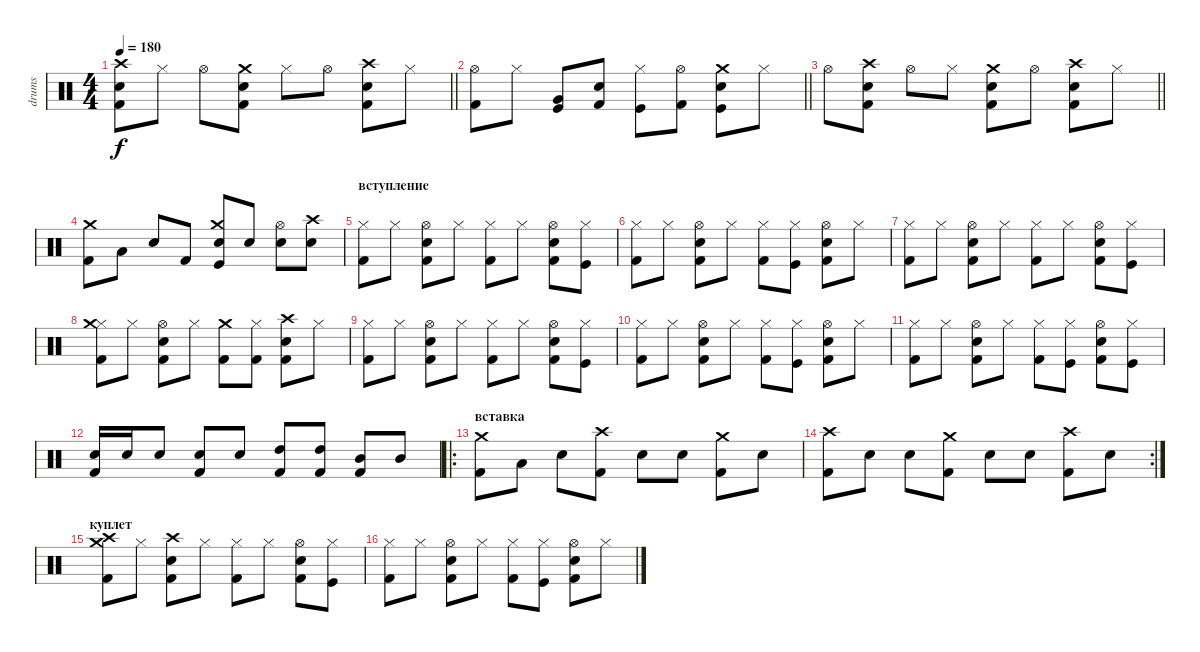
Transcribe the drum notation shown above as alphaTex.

\track ("drums" "drums") {instrument percussion}
\staff {score}
\articulation defaults
\ts (4 4)
\tempo 180
\clef neutral
\barLineRight lightlight
\ks c
("Crash high (hit)" "Electric Snare (hit)" "Kick (hit) 2").8{dy f} "Hi-Hat (closed)".8 "Hi-Hat (open)".8 ("Crash medium (hit)" "Electric Snare (hit)" "Kick (hit) 2").8 "Hi-Hat (closed)".8 "Hi-Hat (open)".8 ("Crash high (hit)" "Electric Snare (hit)" "Kick (hit) 2").8 "Hi-Hat (closed)".8 |
\barLineRight lightlight
("Hi-Hat (open)" "Kick (hit) 2").8 "Hi-Hat (closed)".8 ("Very Low Tom (hit)" "Kick (hit)").8 ("Electric Snare (hit)" "Kick (hit) 2").8 ("Hi-Hat (closed)" "Kick (hit)").8 ("Hi-Hat (open)" "Kick (hit) 2").8 ("Crash medium (hit)" "Electric Snare (hit)" "Kick (hit)").8 "Hi-Hat (closed)".8 |
\barLineRight lightlight "Hi-Hat (open)".8
("Crash high (hit)" "Electric Snare (hit)" "Kick (hit) 2").8 "Hi-Hat (open)".8 "Hi-Hat (closed)".8 ("Crash medium (hit)" "Electric Snare (hit)" "Kick (hit) 2").8 "Hi-Hat (open)".8 ("Crash high (hit)" "Electric Snare (hit)" "Kick (hit) 2").8 "Hi-Hat (closed)".8 |
("Kick (hit) 2" "Crash medium (hit)").8 "Low Floor Tom (hit)".8 "Electric Snare (hit)".8 "Kick (hit) 2".8 ("Electric Snare (hit)" "Kick (hit)" "Crash medium (hit)").8 "Electric Snare (hit)".8 ("Electric Snare (hit)" "Hi-Hat (open)").8 ("Electric Snare (hit)" "Crash high (hit)").8 |
\section ("" "вступление")
("Hi-Hat (closed)" "Kick (hit) 2").8 "Hi-Hat (closed)".8 ("Hi-Hat (open)" "Electric Snare (hit)" "Kick (hit) 2").8 "Hi-Hat (closed)".8 ("Hi-Hat (closed)" "Kick (hit) 2").8 "Hi-Hat (closed)".8 ("Hi-Hat (open)" "Electric Snare (hit)" "Kick (hit) 2").8 ("Hi-Hat (closed)" "Kick (hit)").8 |
("Hi-Hat (closed)" "Kick (hit) 2").8 "Hi-Hat (closed)".8 ("Hi-Hat (open)" "Electric Snare (hit)" "Kick (hit) 2").8 "Hi-Hat (closed)".8 ("Hi-Hat (closed)" "Kick (hit) 2").8 ("Hi-Hat (closed)" "Kick (hit)").8 ("Hi-Hat (open)" "Electric Snare (hit)" "Kick (hit) 2").8 "Hi-Hat (closed)".8 |
("Hi-Hat (closed)" "Kick (hit) 2").8 "Hi-Hat (closed)".8 ("Hi-Hat (open)" "Electric Snare (hit)" "Kick (hit) 2").8 "Hi-Hat (closed)".8 ("Hi-Hat (closed)" "Kick (hit) 2").8 "Hi-Hat (closed)".8 ("Hi-Hat (open)" "Electric Snare (hit)" "Kick (hit) 2").8 ("Hi-Hat (closed)" "Kick (hit)").8 |
("Hi-Hat (closed)" "Crash medium (hit)" "Kick (hit) 2").8 "Hi-Hat (closed)".8 ("Hi-Hat (open)" "Electric Snare (hit)" "Kick (hit) 2").8 "Hi-Hat (closed)".8 ("Crash medium (hit)" "Kick (hit) 2").8 ("Hi-Hat (closed)" "Kick (hit) 2").8 ("Crash high (hit)" "Electric Snare (hit)" "Kick (hit) 2").8 "Hi-Hat (closed)".8 |
("Hi-Hat (closed)" "Kick (hit) 2").8 "Hi-Hat (closed)".8 ("Hi-Hat (open)" "Electric Snare (hit)" "Kick (hit) 2").8 "Hi-Hat (closed)".8 ("Hi-Hat (closed)" "Kick (hit) 2").8 "Hi-Hat (closed)".8 ("Hi-Hat (open)" "Electric Snare (hit)" "Kick (hit) 2").8 ("Hi-Hat (closed)" "Kick (hit)").8 |
("Hi-Hat (closed)" "Kick (hit) 2").8 "Hi-Hat (closed)".8 ("Hi-Hat (open)" "Electric Snare (hit)" "Kick (hit) 2").8 "Hi-Hat (closed)".8 ("Hi-Hat (closed)" "Kick (hit) 2").8 ("Hi-Hat (closed)" "Kick (hit)").8 ("Hi-Hat (open)" "Electric Snare (hit)" "Kick (hit) 2").8 "Hi-Hat (closed)".8 |
("Hi-Hat (closed)" "Kick (hit) 2").8 "Hi-Hat (closed)".8 ("Hi-Hat (open)" "Electric Snare (hit)" "Kick (hit) 2").8 "Hi-Hat (closed)".8 ("Hi-Hat (closed)" "Kick (hit) 2").8 ("Hi-Hat (closed)" "Kick (hit)").8 ("Hi-Hat (open)" "Electric Snare (hit)" "Kick (hit) 2").8 ("Hi-Hat (closed)" "Kick (hit)").8 |
("Electric Snare (hit)" "Kick (hit) 2").16 "Electric Snare (hit)".16 "Electric Snare (hit)".8 ("Electric Snare (hit)" "Kick (hit) 2").8 "Electric Snare (hit)".8 ("High Tom (hit)" "Kick (hit) 2").8 ("High Tom (hit)" "Kick (hit) 2").8 ("Mid Tom (hit)" "Kick (hit) 2").8 "Mid Tom (hit)".8 |
\ro
\section ("" "вставка")
("Kick (hit) 2" "Crash medium (hit)").8 "Low Floor Tom (hit)".8 "Electric Snare (hit)".8 ("Kick (hit) 2" "Crash high (hit)").8 "Electric Snare (hit)".8 "Electric Snare (hit)".8 ("Kick (hit) 2" "Crash medium (hit)").8 "Electric Snare (hit)".8 |
\rc 2
("Kick (hit) 2" "Crash high (hit)").8 "Electric Snare (hit)".8 "Electric Snare (hit)".8 ("Kick (hit) 2" "Crash medium (hit)").8 "Electric Snare (hit)".8 "Electric Snare (hit)".8 ("Kick (hit) 2" "Crash high (hit)").8 "Electric Snare (hit)".8 |
\section ("" "куплет")
("Crash high (hit)" "Kick (hit) 2" "Crash medium (hit)").8 "Hi-Hat (closed)".8 ("Electric Snare (hit)" "Kick (hit) 2" "Crash high (hit)").8 "Hi-Hat (closed)".8 ("Hi-Hat (closed)" "Kick (hit) 2").8 "Hi-Hat (closed)".8 ("Hi-Hat (open)" "Electric Snare (hit)" "Kick (hit) 2").8 ("Hi-Hat (closed)" "Kick (hit)").8 |
("Hi-Hat (closed)" "Kick (hit) 2").8 "Hi-Hat (closed)".8 ("Hi-Hat (open)" "Electric Snare (hit)" "Kick (hit) 2").8 "Hi-Hat (closed)".8 ("Hi-Hat (closed)" "Kick (hit) 2").8 ("Hi-Hat (closed)" "Kick (hit)").8 ("Hi-Hat (open)" "Electric Snare (hit)" "Kick (hit) 2").8 "Hi-Hat (closed)".8
